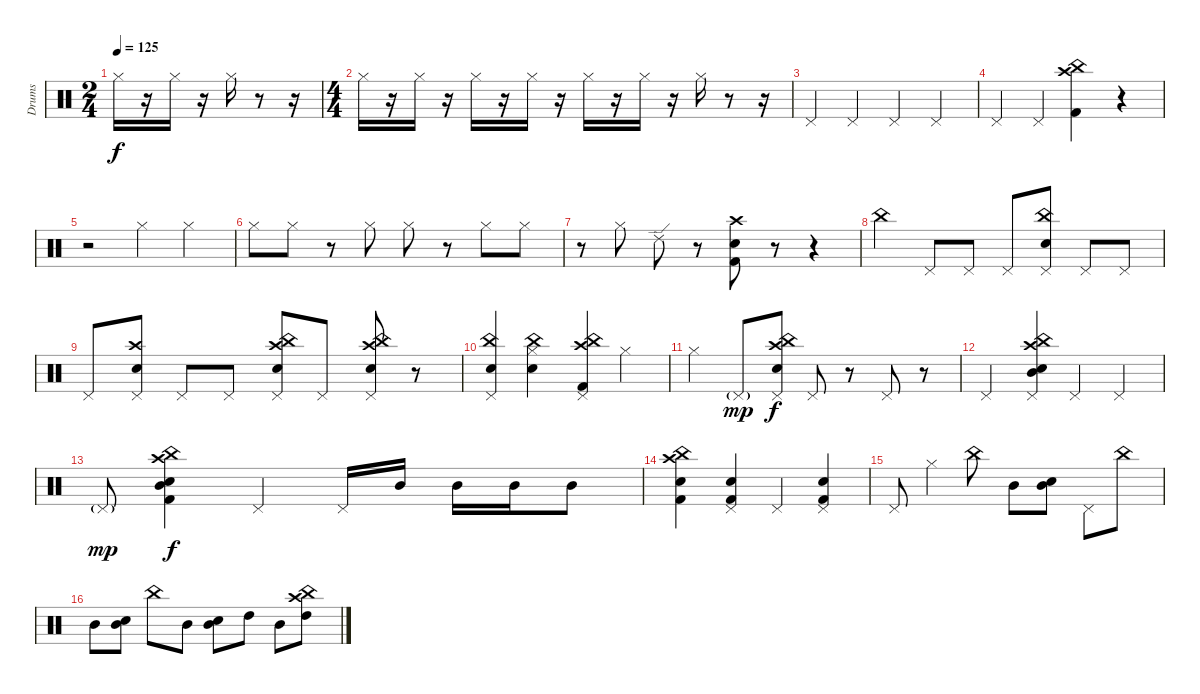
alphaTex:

\track ("Drums" "Drums") {instrument percussion}
\staff {score}
\articulation defaults
\ts (2 4)
\tempo 125
\clef neutral
\ks c "Hi-Hat (closed)".16{dy f}
r.16 "Hi-Hat (closed)".16 r.16 "Hi-Hat (closed)".16 r.8 r.16 |
\ts (4 4)
"Hi-Hat (closed)".16 r.16 "Hi-Hat (closed)".16 r.16 "Hi-Hat (closed)".16 r.16 "Hi-Hat (closed)".16 r.16 "Hi-Hat (closed)".16 r.16 "Hi-Hat (closed)".16 r.16 "Hi-Hat (closed)".16 r.8 r.16 |
"Pedal Hi-Hat (hit)".4 "Pedal Hi-Hat (hit)".4 "Pedal Hi-Hat (hit)".4 "Pedal Hi-Hat (hit)".4 |
"Pedal Hi-Hat (hit)".4 "Pedal Hi-Hat (hit)".4 ("China (hit)" "Crash high (hit)" "Kick (hit) 2").4 r.4 |
r.2 "Hi-Hat (closed)".4 "Hi-Hat (closed)".4 |
"Hi-Hat (closed)".8 "Hi-Hat (closed)".8 r.8 "Hi-Hat (closed)".8 "Hi-Hat (closed)".8 r.8 "Hi-Hat (closed)".8 "Hi-Hat (closed)".8 |
r.8 "Hi-Hat (closed)".8 "Ride (edge) 2".8 r.8 ("Crash high (hit)" "Snare (hit) 2" "Kick (hit) 2").8 r.8 r.4 |
"China (hit)".4 "Pedal Hi-Hat (hit)".8 "Pedal Hi-Hat (hit)".8 "Pedal Hi-Hat (hit)".8 ("Pedal Hi-Hat (hit)" "China (hit)" "Snare (hit) 2").8 "Pedal Hi-Hat (hit)".8 "Pedal Hi-Hat (hit)".8 |
"Pedal Hi-Hat (hit)".8 ("Pedal Hi-Hat (hit)" "Snare (hit) 2" "Crash high (hit)").8 "Pedal Hi-Hat (hit)".8 "Pedal Hi-Hat (hit)".8 ("Pedal Hi-Hat (hit)" "Snare (hit) 2" "China (hit)" "Crash high (hit)").8 "Pedal Hi-Hat (hit)".8 ("Pedal Hi-Hat (hit)" "Snare (hit) 2" "China (hit)" "Crash high (hit)").8 r.8 |
("Pedal Hi-Hat (hit)" "Snare (hit) 2" "China (hit)").4 ("Hi-Hat (closed)" "Snare (hit) 2" "China (hit)").4 ("Pedal Hi-Hat (hit)" "Kick (hit) 2" "China (hit)" "Crash high (hit)").4 "Hi-Hat (closed)".4 |
"Hi-Hat (closed)".4 "Pedal Hi-Hat (hit)"{g}.8{dy mp} ("Pedal Hi-Hat (hit)" "Snare (hit) 2" "China (hit)" "Crash high (hit)").8{dy f} "Pedal Hi-Hat (hit)".8 r.8 "Pedal Hi-Hat (hit)".8 r.8 |
"Pedal Hi-Hat (hit)".4 ("Pedal Hi-Hat (hit)" "Snare (hit) 2" "China (hit)" "Crash high (hit)" "Mid Tom (hit)").4 "Pedal Hi-Hat (hit)".4 "Pedal Hi-Hat (hit)".4 |
"Pedal Hi-Hat (hit)"{g}.8{dy mp} ("Snare (hit) 2" "Kick (hit) 2" "China (hit)" "Crash high (hit)" "Mid Tom (hit)").4{dy f} "Pedal Hi-Hat (hit)".4 "Pedal Hi-Hat (hit)".16 "Mid Tom (hit)".16 "Mid Tom (hit)".16 "Mid Tom (hit)".16 "Mid Tom (hit)".8 |
("Snare (hit) 2" "Kick (hit) 2" "China (hit)" "Crash high (hit)").4 ("Pedal Hi-Hat (hit)" "Kick (hit) 2" "Snare (hit) 2").4 "Pedal Hi-Hat (hit)".4 ("Pedal Hi-Hat (hit)" "Kick (hit) 2" "Snare (hit) 2").4 |
"Pedal Hi-Hat (hit)".8 "Hi-Hat (closed)".4 "China (hit)".8 "Mid Tom (hit)".8 ("Mid Tom (hit)" "Snare (hit) 2").8 "Pedal Hi-Hat (hit)".8 "China (hit)".8 |
"Mid Tom (hit)".8 ("Mid Tom (hit)" "Snare (hit) 2").8 "China (hit)".8 "Mid Tom (hit)".8 ("Mid Tom (hit)" "Snare (hit) 2").8 "High Tom (hit)".8 "Mid Tom (hit)".8 ("High Tom (hit)" "China (hit)" "Crash high (hit)").8
